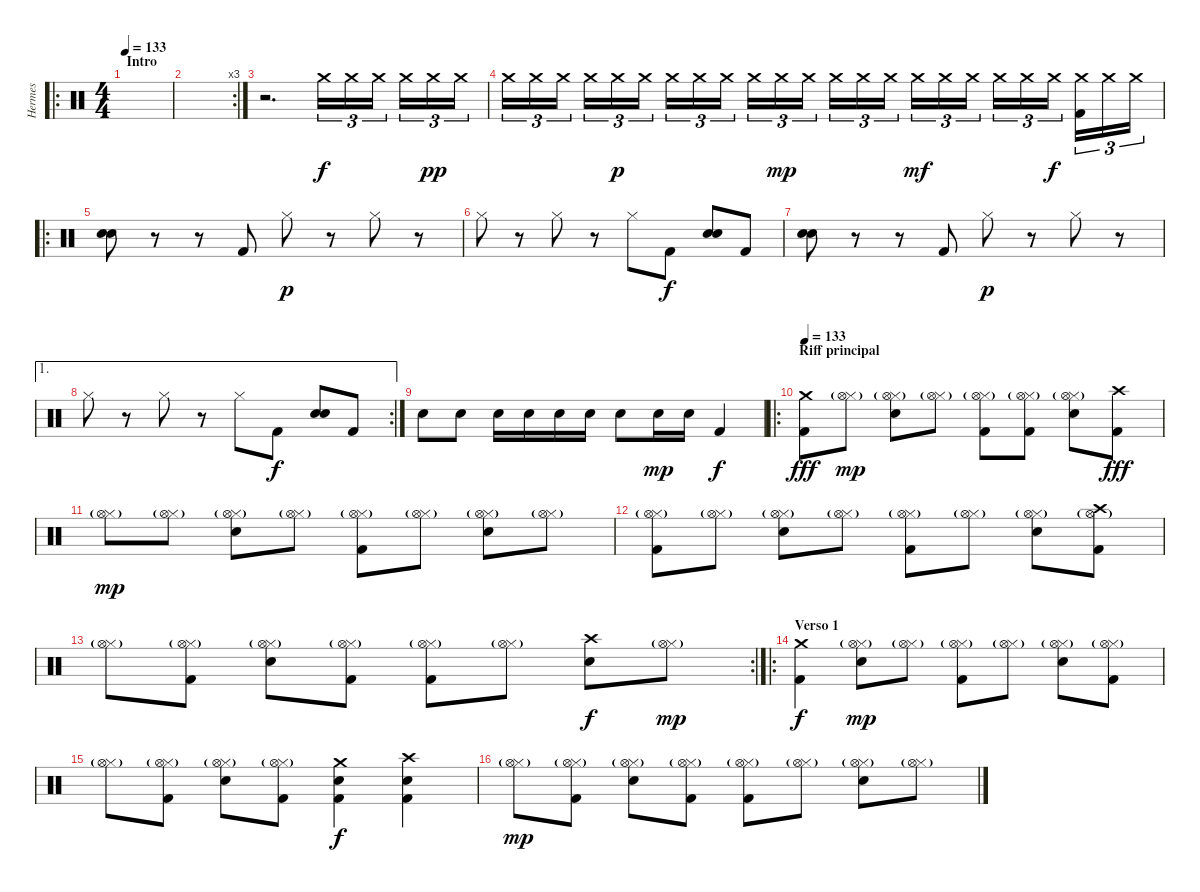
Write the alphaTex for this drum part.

\track ("Hermes" "Hermes") {instrument percussion}
\staff {score}
\articulation defaults
\ro
\ts (4 4)
\section ("" "Intro")
\tempo 133
\tempo 127
\tempo 133
\clef neutral
\ks c
|
\rc 3
|
r.2{d} "Crash medium (hit)".16{tu (3 2)} "Crash medium (hit)".16{tu (3 2)} "Crash medium (hit)".16{tu (3 2)} "Crash medium (hit)".16{tu (3 2)} "Crash medium (hit)".16{tu (3 2) dy pp} "Crash medium (hit)".16{tu (3 2)} |
"Crash medium (hit)".16{tu (3 2)} "Crash medium (hit)".16{tu (3 2)} "Crash medium (hit)".16{tu (3 2)} "Crash medium (hit)".16{tu (3 2)} "Crash medium (hit)".16{tu (3 2) dy p} "Crash medium (hit)".16{tu (3 2)} "Crash medium (hit)".16{tu (3 2)} "Crash medium (hit)".16{tu (3 2)} "Crash medium (hit)".16{tu (3 2)} "Crash medium (hit)".16{tu (3 2)} "Crash medium (hit)".16{tu (3 2) dy mp} "Crash medium (hit)".16{tu (3 2)} "Crash medium (hit)".16{tu (3 2)} "Crash medium (hit)".16{tu (3 2)} "Crash medium (hit)".16{tu (3 2)} "Crash medium (hit)".16{tu (3 2) dy mf} "Crash medium (hit)".16{tu (3 2)} "Crash medium (hit)".16{tu (3 2)} "Crash medium (hit)".16{tu (3 2)} "Crash medium (hit)".16{tu (3 2)} "Crash medium (hit)".16{tu (3 2) dy f} ("Crash medium (hit)" "Kick (hit) 2").16{tu (3 2)} "Crash medium (hit)".16{tu (3 2)} "Crash medium (hit)".16{tu (3 2)} |
\ro
("Snare (hit) 2" "Snare (hit) 2").8 r.8 r.8 "Kick (hit) 2".8 "Hi-Hat (closed)".8{dy p} r.8 "Hi-Hat (closed)".8 r.8 |
"Hi-Hat (closed)".8 r.8 "Hi-Hat (closed)".8 r.8 "Hi-Hat (closed)".8 "Kick (hit) 2".8{dy f} ("Snare (hit) 2" "Snare (hit) 2").8 "Kick (hit) 2".8 |
("Snare (hit) 2" "Snare (hit) 2").8 r.8 r.8 "Kick (hit) 2".8 "Hi-Hat (closed)".8{dy p} r.8 "Hi-Hat (closed)".8 r.8 |
\ae 1
\rc 2 "Hi-Hat (closed)".8
r.8 "Hi-Hat (closed)".8 r.8 "Hi-Hat (closed)".8 "Kick (hit) 2".8{dy f} ("Snare (hit) 2" "Snare (hit) 2").8 "Kick (hit) 2".8 |
"Snare (hit) 2".8 "Snare (hit) 2".8 "Snare (hit) 2".16 "Snare (hit) 2".16 "Snare (hit) 2".16 "Snare (hit) 2".16 "Snare (hit) 2".8 "Snare (hit) 2".16{dy mp} "Snare (hit) 2".16 "Kick (hit) 2".4{dy f} |
\ro
\section ("" "Riff principal")
\tempo 133
("Crash medium (hit)" "Kick (hit) 2").8{dy fff} ("Hi-Hat (closed)" "Hi-Hat (open)"{g}).8{dy mp} ("Hi-Hat (closed)" "Hi-Hat (open)"{g} "Snare (hit) 2").8 ("Hi-Hat (closed)" "Hi-Hat (open)"{g}).8 ("Hi-Hat (closed)" "Hi-Hat (open)"{g} "Kick (hit) 2").8 ("Hi-Hat (closed)" "Hi-Hat (open)"{g} "Kick (hit) 2").8 ("Hi-Hat (closed)" "Hi-Hat (open)"{g} "Snare (hit) 2").8 ("Crash high (hit)" "Kick (hit) 2").8{dy fff} |
("Hi-Hat (closed)" "Hi-Hat (open)"{g}).8{dy mp} ("Hi-Hat (closed)" "Hi-Hat (open)"{g}).8 ("Hi-Hat (closed)" "Hi-Hat (open)"{g} "Snare (hit) 2").8 ("Hi-Hat (closed)" "Hi-Hat (open)"{g}).8 ("Hi-Hat (closed)" "Hi-Hat (open)"{g} "Kick (hit) 2").8 ("Hi-Hat (closed)" "Hi-Hat (open)"{g}).8 ("Hi-Hat (closed)" "Hi-Hat (open)"{g} "Snare (hit) 2").8 ("Hi-Hat (closed)" "Hi-Hat (open)"{g}).8 |
("Hi-Hat (closed)" "Hi-Hat (open)"{g} "Kick (hit) 2").8 ("Hi-Hat (closed)" "Hi-Hat (open)"{g}).8 ("Hi-Hat (closed)" "Hi-Hat (open)"{g} "Snare (hit) 2").8 ("Hi-Hat (closed)" "Hi-Hat (open)"{g}).8 ("Hi-Hat (closed)" "Hi-Hat (open)"{g} "Kick (hit) 2").8 ("Hi-Hat (closed)" "Hi-Hat (open)"{g}).8 ("Hi-Hat (closed)" "Hi-Hat (open)"{g} "Snare (hit) 2").8 ("Crash high (hit)" "Hi-Hat (open)"{g} "Kick (hit) 2").8 |
\rc 2
("Hi-Hat (closed)" "Hi-Hat (open)"{g}).8 ("Hi-Hat (closed)" "Hi-Hat (open)"{g} "Kick (hit) 2").8 ("Hi-Hat (closed)" "Hi-Hat (open)"{g} "Snare (hit) 2").8 ("Hi-Hat (closed)" "Hi-Hat (open)"{g} "Kick (hit) 2").8 ("Hi-Hat (closed)" "Hi-Hat (open)"{g} "Kick (hit) 2").8 ("Hi-Hat (closed)" "Hi-Hat (open)"{g}).8 ("Crash high (hit)" "Snare (hit) 2").8{dy f} ("Hi-Hat (closed)" "Hi-Hat (open)"{g}).8{dy mp} |
\ro
\section ("" "Verso 1")
("Crash medium (hit)" "Kick (hit) 2").4{dy f} ("Hi-Hat (closed)" "Hi-Hat (open)"{g} "Snare (hit) 2").8{dy mp} ("Hi-Hat (closed)" "Hi-Hat (open)"{g}).8 ("Hi-Hat (closed)" "Hi-Hat (open)"{g} "Kick (hit) 2").8 ("Hi-Hat (closed)" "Hi-Hat (open)"{g}).8 ("Hi-Hat (closed)" "Hi-Hat (open)"{g} "Snare (hit) 2").8 ("Hi-Hat (closed)" "Hi-Hat (open)"{g} "Kick (hit) 2").8 |
("Hi-Hat (closed)" "Hi-Hat (open)"{g}).8 ("Hi-Hat (closed)" "Hi-Hat (open)"{g} "Kick (hit) 2").8 ("Hi-Hat (closed)" "Hi-Hat (open)"{g} "Snare (hit) 2").8 ("Hi-Hat (closed)" "Hi-Hat (open)"{g} "Kick (hit) 2").8 ("Crash medium (hit)" "Snare (hit) 2" "Kick (hit) 2").4{dy f} ("Crash high (hit)" "Snare (hit) 2" "Kick (hit) 2").4 |
("Hi-Hat (closed)" "Hi-Hat (open)"{g}).8{dy mp} ("Hi-Hat (closed)" "Hi-Hat (open)"{g} "Kick (hit) 2").8 ("Hi-Hat (closed)" "Hi-Hat (open)"{g} "Snare (hit) 2").8 ("Hi-Hat (closed)" "Hi-Hat (open)"{g} "Kick (hit) 2").8 ("Hi-Hat (closed)" "Hi-Hat (open)"{g} "Kick (hit) 2").8 ("Hi-Hat (closed)" "Hi-Hat (open)"{g}).8 ("Hi-Hat (closed)" "Hi-Hat (open)"{g} "Snare (hit) 2").8 ("Hi-Hat (closed)" "Hi-Hat (open)"{g}).8
